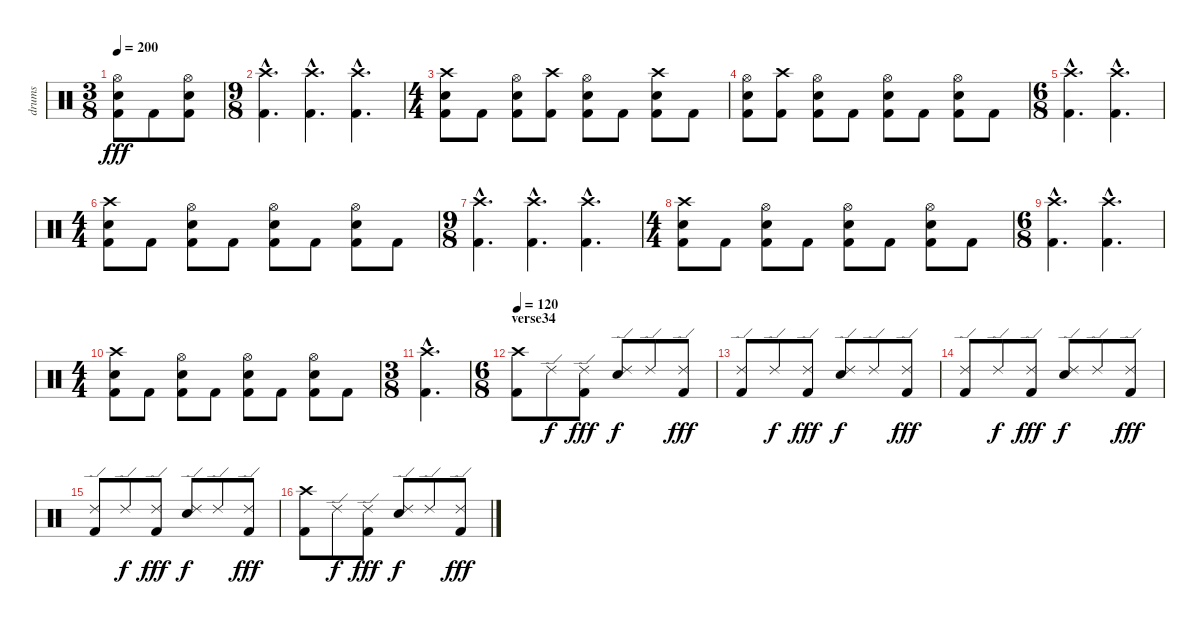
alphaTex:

\track ("drums" "drums") {instrument percussion}
\staff {score}
\articulation defaults
\ts (3 8)
\tempo 200
\clef neutral
\ks c
("Hi-Hat (open)" "Snare (hit) 2" "Kick (hit) 2").8{dy fff} "Kick (hit) 2".8 ("Hi-Hat (open)" "Snare (hit) 2" "Kick (hit) 2").8 |
\ts (9 8)
("Crash high (hit)"{hac} "Kick (hit) 2"{hac}).4{d} ("Crash high (hit)"{hac} "Kick (hit) 2"{hac}).4{d} ("Crash high (hit)"{hac} "Kick (hit) 2"{hac}).4{d} |
\ts (4 4)
("Crash high (hit)" "Snare (hit) 2" "Kick (hit) 2").8 "Kick (hit) 2".8 ("Hi-Hat (open)" "Snare (hit) 2" "Kick (hit) 2").8 ("Crash high (hit)" "Kick (hit) 2").8 ("Hi-Hat (open)" "Snare (hit) 2" "Kick (hit) 2").8 "Kick (hit) 2".8 ("Crash high (hit)" "Snare (hit) 2" "Kick (hit) 2").8 "Kick (hit) 2".8 |
("Hi-Hat (open)" "Snare (hit) 2" "Kick (hit) 2").8 ("Crash high (hit)" "Kick (hit) 2").8 ("Hi-Hat (open)" "Snare (hit) 2" "Kick (hit) 2").8 "Kick (hit) 2".8 ("Hi-Hat (open)" "Snare (hit) 2" "Kick (hit) 2").8 "Kick (hit) 2".8 ("Hi-Hat (open)" "Snare (hit) 2" "Kick (hit) 2").8 "Kick (hit) 2".8 |
\ts (6 8)
("Crash high (hit)"{hac} "Kick (hit) 2"{hac}).4{d} ("Crash high (hit)"{hac} "Kick (hit) 2"{hac}).4{d} |
\ts (4 4)
("Crash high (hit)" "Snare (hit) 2" "Kick (hit) 2").8 "Kick (hit) 2".8 ("Hi-Hat (open)" "Snare (hit) 2" "Kick (hit) 2").8 "Kick (hit) 2".8 ("Hi-Hat (open)" "Snare (hit) 2" "Kick (hit) 2").8 "Kick (hit) 2".8 ("Hi-Hat (open)" "Snare (hit) 2" "Kick (hit) 2").8 "Kick (hit) 2".8 |
\ts (9 8)
("Crash high (hit)"{hac} "Kick (hit) 2"{hac}).4{d} ("Crash high (hit)"{hac} "Kick (hit) 2"{hac}).4{d} ("Crash high (hit)"{hac} "Kick (hit) 2"{hac}).4{d} |
\ts (4 4)
("Crash high (hit)" "Snare (hit) 2" "Kick (hit) 2").8 "Kick (hit) 2".8 ("Hi-Hat (open)" "Snare (hit) 2" "Kick (hit) 2").8 "Kick (hit) 2".8 ("Hi-Hat (open)" "Snare (hit) 2" "Kick (hit) 2").8 "Kick (hit) 2".8 ("Hi-Hat (open)" "Snare (hit) 2" "Kick (hit) 2").8 "Kick (hit) 2".8 |
\ts (6 8)
("Crash high (hit)"{hac} "Kick (hit) 2"{hac}).4{d} ("Crash high (hit)"{hac} "Kick (hit) 2"{hac}).4{d} |
\ts (4 4)
("Crash high (hit)" "Snare (hit) 2" "Kick (hit) 2").8 "Kick (hit) 2".8 ("Hi-Hat (open)" "Snare (hit) 2" "Kick (hit) 2").8 "Kick (hit) 2".8 ("Hi-Hat (open)" "Snare (hit) 2" "Kick (hit) 2").8 "Kick (hit) 2".8 ("Hi-Hat (open)" "Snare (hit) 2" "Kick (hit) 2").8 "Kick (hit) 2".8 |
\ts (3 8)
("Crash high (hit)"{hac} "Kick (hit) 2"{hac}).4{d} |
\ts (6 8)
\section ("" "verse34")
\tempo 120
("Crash high (hit)" "Kick (hit) 2").8 "Ride (edge) 2".8{dy f} ("Ride (edge) 2" "Kick (hit) 2").8{dy fff} ("Ride (edge) 2" "Snare (hit) 2").8{dy f} "Ride (edge) 2".8 ("Ride (edge) 2" "Kick (hit) 2").8{dy fff} |
("Ride (edge) 2" "Kick (hit) 2").8 "Ride (edge) 2".8{dy f} ("Ride (edge) 2" "Kick (hit) 2").8{dy fff} ("Ride (edge) 2" "Snare (hit) 2").8{dy f} "Ride (edge) 2".8 ("Ride (edge) 2" "Kick (hit) 2").8{dy fff} |
("Ride (edge) 2" "Kick (hit) 2").8 "Ride (edge) 2".8{dy f} ("Ride (edge) 2" "Kick (hit) 2").8{dy fff} ("Ride (edge) 2" "Snare (hit) 2").8{dy f} "Ride (edge) 2".8 ("Ride (edge) 2" "Kick (hit) 2").8{dy fff} |
("Ride (edge) 2" "Kick (hit) 2").8 "Ride (edge) 2".8{dy f} ("Ride (edge) 2" "Kick (hit) 2").8{dy fff} ("Ride (edge) 2" "Snare (hit) 2").8{dy f} "Ride (edge) 2".8 ("Ride (edge) 2" "Kick (hit) 2").8{dy fff} |
("Crash high (hit)" "Kick (hit) 2").8 "Ride (edge) 2".8{dy f} ("Ride (edge) 2" "Kick (hit) 2").8{dy fff} ("Ride (edge) 2" "Snare (hit) 2").8{dy f} "Ride (edge) 2".8 ("Ride (edge) 2" "Kick (hit) 2").8{dy fff}
